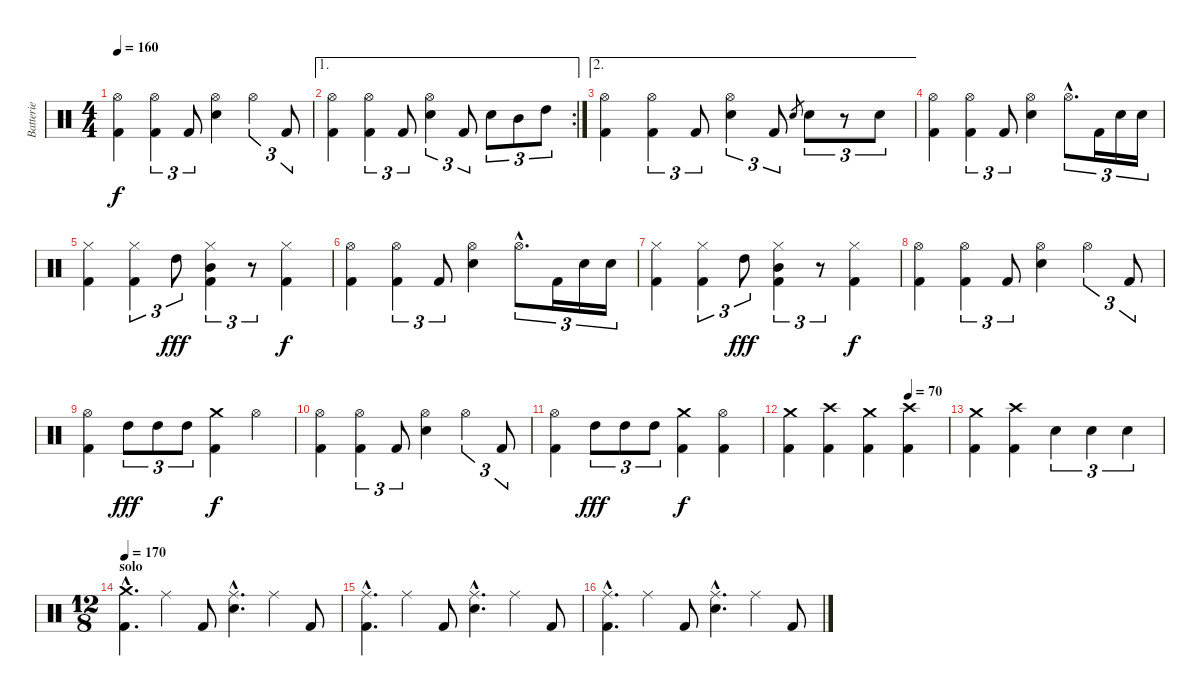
\track ("Batterie" "Batterie") {instrument percussion}
\staff {score}
\articulation defaults
\ts (4 4)
\tempo 160
\clef neutral
\ks c
("Hi-Hat (open)" "Kick (hit) 2").4{dy f} ("Hi-Hat (open)" "Kick (hit) 2").4{tu (3 2)} "Kick (hit) 2".8{tu (3 2)} ("Hi-Hat (open)" "Electric Snare (hit)").4 "Hi-Hat (open)".4{tu (3 2)} "Kick (hit) 2".8{tu (3 2)} |
\ae 1
\rc 2
("Hi-Hat (open)" "Kick (hit) 2").4 ("Hi-Hat (open)" "Kick (hit) 2").4{tu (3 2)} "Kick (hit) 2".8{tu (3 2)} ("Hi-Hat (open)" "Electric Snare (hit)").4{tu (3 2)} "Kick (hit) 2".8{tu (3 2)} "Electric Snare (hit)".8{tu (3 2)} "Mid Tom (hit)".8{tu (3 2)} "High Tom (hit)".8{tu (3 2)} |
\ae 2
("Hi-Hat (open)" "Kick (hit) 2").4 ("Hi-Hat (open)" "Kick (hit) 2").4{tu (3 2)} "Kick (hit) 2".8{tu (3 2)} ("Hi-Hat (open)" "Electric Snare (hit)").4{tu (3 2)} "Kick (hit) 2".8{tu (3 2)} "Electric Snare (hit)".8{gr} "Electric Snare (hit)".8{tu (3 2)} r.8{tu (3 2)} "Electric Snare (hit)".8{tu (3 2)} |
("Hi-Hat (open)" "Kick (hit) 2").4 ("Hi-Hat (open)" "Kick (hit) 2").4{tu (3 2)} "Kick (hit) 2".8{tu (3 2)} ("Hi-Hat (open)" "Electric Snare (hit)").4 "Hi-Hat (open)"{hac}.8{d tu (3 2)} "Kick (hit) 2".16{tu (3 2)} "Electric Snare (hit)".16{tu (3 2)} "Electric Snare (hit)".16{tu (3 2)} |
("Hi-Hat (closed)" "Kick (hit) 2").4 ("Hi-Hat (closed)" "Kick (hit) 2").4{tu (3 2)} "High Tom (hit)".8{tu (3 2) dy fff} ("Hi-Hat (closed)" "Mid Tom (hit)" "Kick (hit) 2").4{tu (3 2)} r.8{tu (3 2)} ("Hi-Hat (closed)" "Kick (hit) 2").4{dy f} |
("Hi-Hat (open)" "Kick (hit) 2").4 ("Hi-Hat (open)" "Kick (hit) 2").4{tu (3 2)} "Kick (hit) 2".8{tu (3 2)} ("Hi-Hat (open)" "Electric Snare (hit)").4 "Hi-Hat (open)"{hac}.8{d tu (3 2)} "Kick (hit) 2".16{tu (3 2)} "Electric Snare (hit)".16{tu (3 2)} "Electric Snare (hit)".16{tu (3 2)} |
("Hi-Hat (closed)" "Kick (hit) 2").4 ("Hi-Hat (closed)" "Kick (hit) 2").4{tu (3 2)} "High Tom (hit)".8{tu (3 2) dy fff} ("Hi-Hat (closed)" "Mid Tom (hit)" "Kick (hit) 2").4{tu (3 2)} r.8{tu (3 2)} ("Hi-Hat (closed)" "Kick (hit) 2").4{dy f} |
("Hi-Hat (open)" "Kick (hit) 2").4 ("Hi-Hat (open)" "Kick (hit) 2").4{tu (3 2)} "Kick (hit) 2".8{tu (3 2)} ("Hi-Hat (open)" "Electric Snare (hit)").4 "Hi-Hat (open)".4{tu (3 2)} "Kick (hit) 2".8{tu (3 2)} |
("Hi-Hat (open)" "Kick (hit) 2").4 "High Tom (hit)".8{tu (3 2) dy fff} "High Tom (hit)".8{tu (3 2)} "High Tom (hit)".8{tu (3 2)} ("Crash medium (hit)" "Kick (hit) 2").4{dy f} "Hi-Hat (open)".4 |
("Hi-Hat (open)" "Kick (hit) 2").4 ("Hi-Hat (open)" "Kick (hit) 2").4{tu (3 2)} "Kick (hit) 2".8{tu (3 2)} ("Hi-Hat (open)" "Electric Snare (hit)").4 "Hi-Hat (open)".4{tu (3 2)} "Kick (hit) 2".8{tu (3 2)} |
("Hi-Hat (open)" "Kick (hit) 2").4 "High Tom (hit)".8{tu (3 2) dy fff} "High Tom (hit)".8{tu (3 2)} "High Tom (hit)".8{tu (3 2)} ("Crash medium (hit)" "Kick (hit) 2").4{dy f} ("Hi-Hat (open)" "Kick (hit) 2").4 |
\tempo (70 0.75)
("Crash medium (hit)" "Kick (hit) 2").4 ("Crash high (hit)" "Kick (hit) 2").4 ("Crash medium (hit)" "Kick (hit) 2").4 ("Crash high (hit)" "Kick (hit) 2").4 |
("Crash medium (hit)" "Kick (hit) 2").4 ("Crash high (hit)" "Kick (hit) 2").4 "Electric Snare (hit)".4{tu (3 2)} "Electric Snare (hit)".4{tu (3 2)} "Electric Snare (hit)".4{tu (3 2)} |
\ts (12 8)
\section ("" "solo")
\tempo 170
("Crash medium (hit)"{hac} "Kick (hit) 2"{hac}).4{d} "Ride (middle)".4 "Kick (hit) 2".8 ("Ride (middle)"{hac} "Electric Snare (hit)"{hac}).4{d} "Ride (middle)".4 "Kick (hit) 2".8 |
("Ride (middle)"{hac} "Kick (hit) 2"{hac}).4{d} "Ride (middle)".4 "Kick (hit) 2".8 ("Ride (middle)"{hac} "Electric Snare (hit)"{hac}).4{d} "Ride (middle)".4 "Kick (hit) 2".8 |
("Ride (middle)"{hac} "Kick (hit) 2"{hac}).4{d} "Ride (middle)".4 "Kick (hit) 2".8 ("Ride (middle)"{hac} "Electric Snare (hit)"{hac}).4{d} "Ride (middle)".4 "Kick (hit) 2".8
